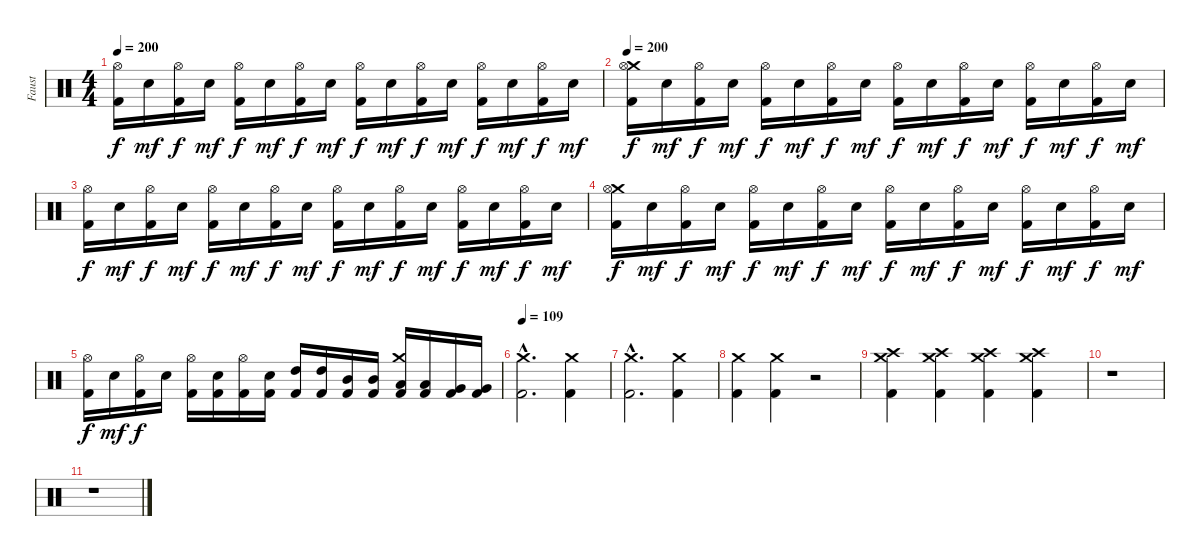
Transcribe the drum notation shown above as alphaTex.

\track ("Faust" "Faust") {instrument percussion}
\staff {score}
\articulation defaults
\ts (4 4)
\tempo 200
\clef neutral
\ks c
("Hi-Hat (open)" "Kick (hit) 2").16{dy f} "Electric Snare (hit)".16{dy mf} ("Hi-Hat (open)" "Kick (hit) 2").16{dy f} "Electric Snare (hit)".16{dy mf} ("Hi-Hat (open)" "Kick (hit) 2").16{dy f} "Electric Snare (hit)".16{dy mf} ("Hi-Hat (open)" "Kick (hit) 2").16{dy f} "Electric Snare (hit)".16{dy mf} ("Hi-Hat (open)" "Kick (hit) 2").16{dy f} "Electric Snare (hit)".16{dy mf} ("Hi-Hat (open)" "Kick (hit) 2").16{dy f} "Electric Snare (hit)".16{dy mf} ("Hi-Hat (open)" "Kick (hit) 2").16{dy f} "Electric Snare (hit)".16{dy mf} ("Hi-Hat (open)" "Kick (hit) 2").16{dy f} "Electric Snare (hit)".16{dy mf} |
\tempo 200
("Crash medium (hit)" "Hi-Hat (open)" "Kick (hit) 2").16{dy f} "Electric Snare (hit)".16{dy mf} ("Hi-Hat (open)" "Kick (hit) 2").16{dy f} "Electric Snare (hit)".16{dy mf} ("Hi-Hat (open)" "Kick (hit) 2").16{dy f} "Electric Snare (hit)".16{dy mf} ("Hi-Hat (open)" "Kick (hit) 2").16{dy f} "Electric Snare (hit)".16{dy mf} ("Hi-Hat (open)" "Kick (hit) 2").16{dy f} "Electric Snare (hit)".16{dy mf} ("Hi-Hat (open)" "Kick (hit) 2").16{dy f} "Electric Snare (hit)".16{dy mf} ("Hi-Hat (open)" "Kick (hit) 2").16{dy f} "Electric Snare (hit)".16{dy mf} ("Hi-Hat (open)" "Kick (hit) 2").16{dy f} "Electric Snare (hit)".16{dy mf} |
("Hi-Hat (open)" "Kick (hit) 2").16{dy f} "Electric Snare (hit)".16{dy mf} ("Hi-Hat (open)" "Kick (hit) 2").16{dy f} "Electric Snare (hit)".16{dy mf} ("Hi-Hat (open)" "Kick (hit) 2").16{dy f} "Electric Snare (hit)".16{dy mf} ("Hi-Hat (open)" "Kick (hit) 2").16{dy f} "Electric Snare (hit)".16{dy mf} ("Hi-Hat (open)" "Kick (hit) 2").16{dy f} "Electric Snare (hit)".16{dy mf} ("Hi-Hat (open)" "Kick (hit) 2").16{dy f} "Electric Snare (hit)".16{dy mf} ("Hi-Hat (open)" "Kick (hit) 2").16{dy f} "Electric Snare (hit)".16{dy mf} ("Hi-Hat (open)" "Kick (hit) 2").16{dy f} "Electric Snare (hit)".16{dy mf} |
("Crash medium (hit)" "Hi-Hat (open)" "Kick (hit) 2").16{dy f} "Electric Snare (hit)".16{dy mf} ("Hi-Hat (open)" "Kick (hit) 2").16{dy f} "Electric Snare (hit)".16{dy mf} ("Hi-Hat (open)" "Kick (hit) 2").16{dy f} "Electric Snare (hit)".16{dy mf} ("Hi-Hat (open)" "Kick (hit) 2").16{dy f} "Electric Snare (hit)".16{dy mf} ("Hi-Hat (open)" "Kick (hit) 2").16{dy f} "Electric Snare (hit)".16{dy mf} ("Hi-Hat (open)" "Kick (hit) 2").16{dy f} "Electric Snare (hit)".16{dy mf} ("Hi-Hat (open)" "Kick (hit) 2").16{dy f} "Electric Snare (hit)".16{dy mf} ("Hi-Hat (open)" "Kick (hit) 2").16{dy f} "Electric Snare (hit)".16{dy mf} |
("Hi-Hat (open)" "Kick (hit) 2").16{dy f} "Electric Snare (hit)".16{dy mf} ("Hi-Hat (open)" "Kick (hit) 2").16{dy f} "Electric Snare (hit)".16 ("Hi-Hat (open)" "Kick (hit) 2").16 ("Electric Snare (hit)" "Kick (hit) 2").16 ("Hi-Hat (open)" "Kick (hit) 2").16 ("Electric Snare (hit)" "Kick (hit) 2").16 ("High Tom (hit)" "Kick (hit) 2").16 ("High Tom (hit)" "Kick (hit) 2").16 ("Mid Tom (hit)" "Kick (hit) 2").16 ("Mid Tom (hit)" "Kick (hit) 2").16 ("Crash medium (hit)" "Low Tom (hit)" "Kick (hit) 2").16 ("Low Tom (hit)" "Kick (hit) 2").16 ("Very Low Tom (hit)" "Kick (hit) 2").16 ("Very Low Tom (hit)" "Kick (hit) 2").16 |
\tempo 109
("Crash medium (hit)"{hac} "Kick (hit) 2"{hac}).2{d} ("Crash medium (hit)" "Kick (hit) 2").4 |
("Crash medium (hit)"{hac} "Kick (hit) 2"{hac}).2{d} ("Crash medium (hit)" "Kick (hit) 2").4 |
("Crash medium (hit)" "Kick (hit) 2").4 ("Crash medium (hit)" "Kick (hit) 2").4 r.2 |
("Crash high (hit)" "Crash medium (hit)" "Kick (hit) 2").4 ("Crash high (hit)" "Crash medium (hit)" "Kick (hit) 2").4 ("Crash high (hit)" "Crash medium (hit)" "Kick (hit) 2").4 ("Crash high (hit)" "Crash medium (hit)" "Kick (hit) 2").4 |
r.1 |
r.1
